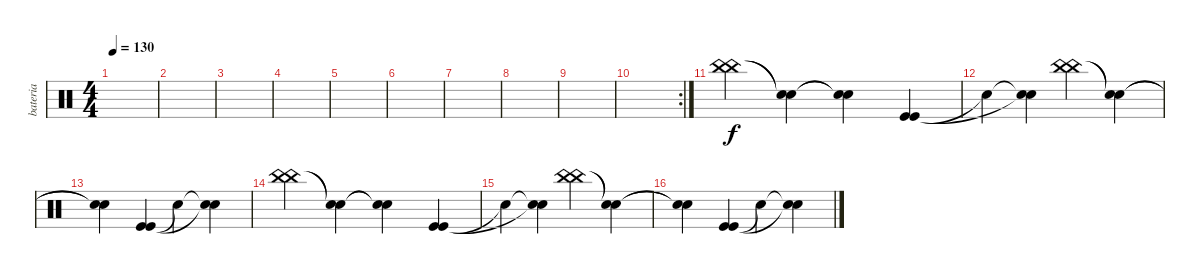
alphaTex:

\track ("bateria" "bateria") {instrument percussion}
\staff {score}
\articulation defaults
\ts (4 4)
\tempo 130
\clef neutral
\ks c
|
|
|
|
|
|
|
|
|
\rc 2
|
("China (hit)" "China (hit)").4 ("Snare (hit)"{t} "Snare (hit)"{t}).4 ("Snare (hit)"{t} "Snare (hit)"{t}).4 ("Kick (hit)" "Kick (hit)").4 |
"Snare (hit)"{t}.4 ("Snare (hit)"{t} "Snare (hit)"{t}).4 ("China (hit)" "China (hit)").4 ("Snare (hit)"{t} "Snare (hit)"{t}).4 |
("Snare (hit)"{t} "Snare (hit)"{t}).4 ("Kick (hit)" "Kick (hit)").4 "Snare (hit)"{t}.4 ("Snare (hit)"{t} "Snare (hit)"{t}).4 |
("China (hit)" "China (hit)").4 ("Snare (hit)"{t} "Snare (hit)"{t}).4 ("Snare (hit)"{t} "Snare (hit)"{t}).4 ("Kick (hit)" "Kick (hit)").4 |
"Snare (hit)"{t}.4 ("Snare (hit)"{t} "Snare (hit)"{t}).4 ("China (hit)" "China (hit)").4 ("Snare (hit)"{t} "Snare (hit)"{t}).4 |
("Snare (hit)"{t} "Snare (hit)"{t}).4 ("Kick (hit)" "Kick (hit)").4 "Snare (hit)"{t}.4 ("Snare (hit)"{t} "Snare (hit)"{t}).4
